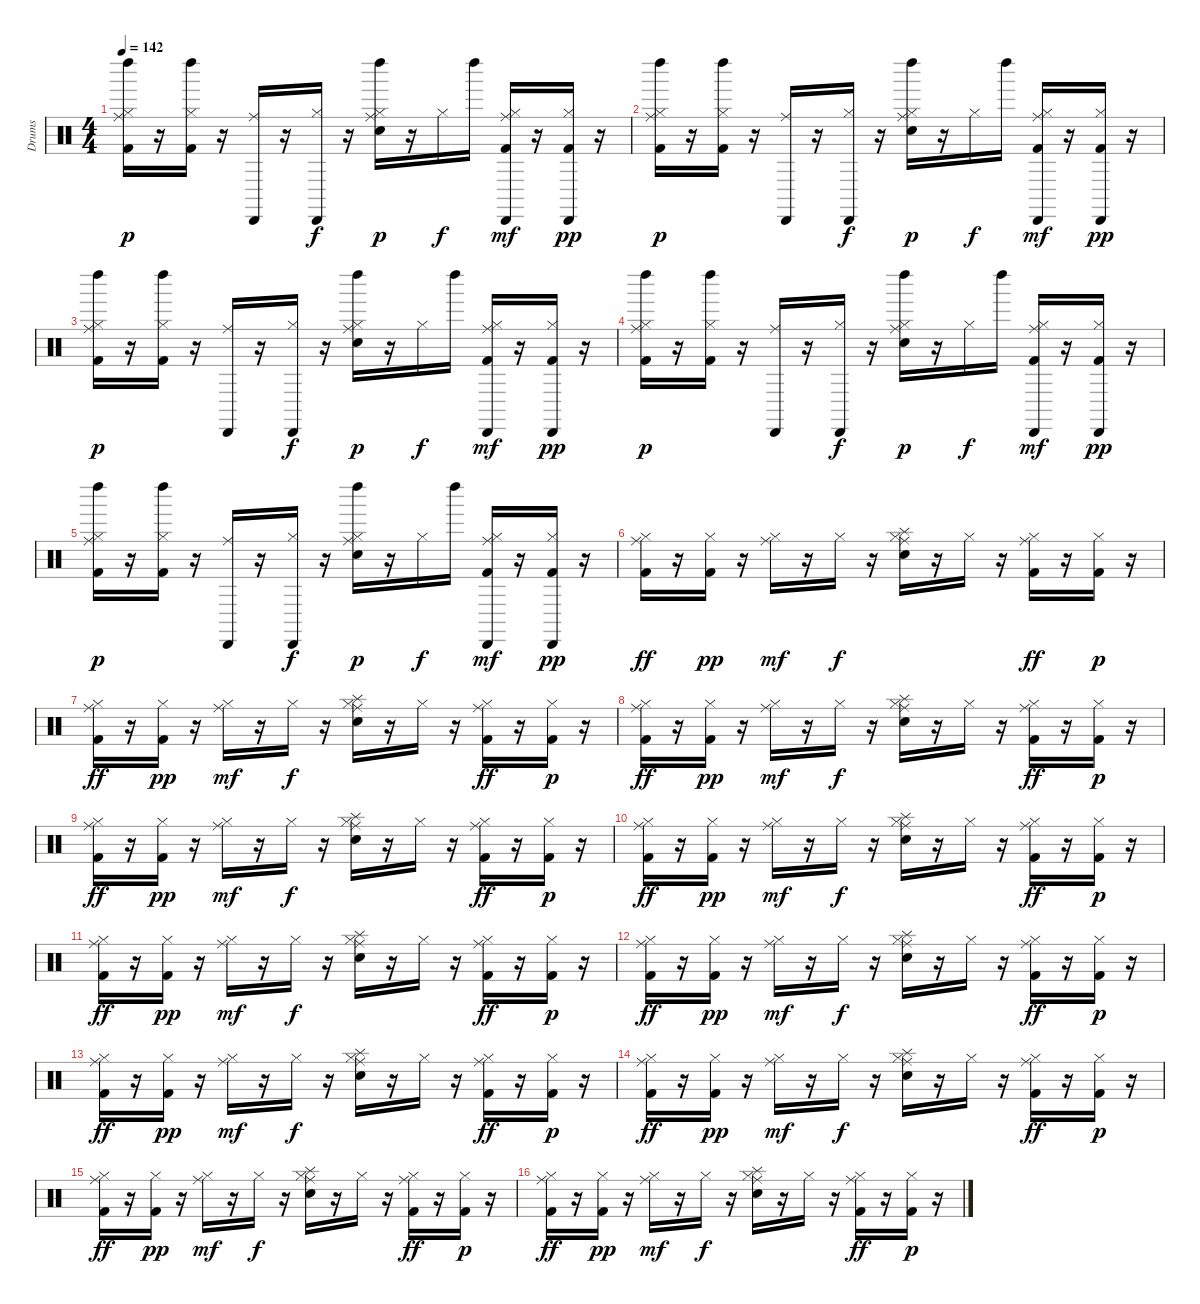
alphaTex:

\track ("Drums" "Drums") {instrument percussion}
\staff {score}
\articulation defaults
\ts (4 4)
\tempo 142
\clef neutral
\ks c
("Ride (middle)" "Hi-Hat (closed)" "Left Maraca (hit)" "Kick (hit) 2").16{dy p} r.16 ("Hi-Hat (closed)" "Left Maraca (hit)" "Kick (hit) 2").16 r.16 ("Ride (middle)" "Cabasa (hit)").16 r.16 ("Hi-Hat (closed)" "Cabasa (hit)").16{dy f} r.16 ("Ride (middle)" "Hi-Hat (closed)" "Left Maraca (hit)" "Snare (hit) 2").16{dy p} r.16 "Hi-Hat (closed)".16{dy f} "Left Maraca (hit)".16 ("Ride (middle)" "Hi-Hat (closed)" "Cabasa (hit)" "Kick (hit) 2").16{dy mf} r.16 ("Hi-Hat (closed)" "Cabasa (hit)" "Kick (hit) 2").16{dy pp} r.16 |
("Ride (middle)" "Hi-Hat (closed)" "Left Maraca (hit)" "Kick (hit) 2").16{dy p} r.16 ("Hi-Hat (closed)" "Left Maraca (hit)" "Kick (hit) 2").16 r.16 ("Ride (middle)" "Cabasa (hit)").16 r.16 ("Hi-Hat (closed)" "Cabasa (hit)").16{dy f} r.16 ("Ride (middle)" "Hi-Hat (closed)" "Left Maraca (hit)" "Snare (hit) 2").16{dy p} r.16 "Hi-Hat (closed)".16{dy f} "Left Maraca (hit)".16 ("Ride (middle)" "Hi-Hat (closed)" "Cabasa (hit)" "Kick (hit) 2").16{dy mf} r.16 ("Hi-Hat (closed)" "Cabasa (hit)" "Kick (hit) 2").16{dy pp} r.16 |
("Ride (middle)" "Hi-Hat (closed)" "Left Maraca (hit)" "Kick (hit) 2").16{dy p} r.16 ("Hi-Hat (closed)" "Left Maraca (hit)" "Kick (hit) 2").16 r.16 ("Ride (middle)" "Cabasa (hit)").16 r.16 ("Hi-Hat (closed)" "Cabasa (hit)").16{dy f} r.16 ("Ride (middle)" "Hi-Hat (closed)" "Left Maraca (hit)" "Snare (hit) 2").16{dy p} r.16 "Hi-Hat (closed)".16{dy f} "Left Maraca (hit)".16 ("Ride (middle)" "Hi-Hat (closed)" "Cabasa (hit)" "Kick (hit) 2").16{dy mf} r.16 ("Hi-Hat (closed)" "Cabasa (hit)" "Kick (hit) 2").16{dy pp} r.16 |
("Ride (middle)" "Hi-Hat (closed)" "Left Maraca (hit)" "Kick (hit) 2").16{dy p} r.16 ("Hi-Hat (closed)" "Left Maraca (hit)" "Kick (hit) 2").16 r.16 ("Ride (middle)" "Cabasa (hit)").16 r.16 ("Hi-Hat (closed)" "Cabasa (hit)").16{dy f} r.16 ("Ride (middle)" "Hi-Hat (closed)" "Left Maraca (hit)" "Snare (hit) 2").16{dy p} r.16 "Hi-Hat (closed)".16{dy f} "Left Maraca (hit)".16 ("Ride (middle)" "Hi-Hat (closed)" "Cabasa (hit)" "Kick (hit) 2").16{dy mf} r.16 ("Hi-Hat (closed)" "Cabasa (hit)" "Kick (hit) 2").16{dy pp} r.16 |
("Ride (middle)" "Hi-Hat (closed)" "Left Maraca (hit)" "Kick (hit) 2").16{dy p} r.16 ("Hi-Hat (closed)" "Left Maraca (hit)" "Kick (hit) 2").16 r.16 ("Ride (middle)" "Cabasa (hit)").16 r.16 ("Hi-Hat (closed)" "Cabasa (hit)").16{dy f} r.16 ("Ride (middle)" "Hi-Hat (closed)" "Left Maraca (hit)" "Snare (hit) 2").16{dy p} r.16 "Hi-Hat (closed)".16{dy f} "Left Maraca (hit)".16 ("Ride (middle)" "Hi-Hat (closed)" "Cabasa (hit)" "Kick (hit) 2").16{dy mf} r.16 ("Hi-Hat (closed)" "Cabasa (hit)" "Kick (hit) 2").16{dy pp} r.16 |
("Ride (middle)" "Hi-Hat (closed)" "Kick (hit) 2").16{dy ff} r.16 ("Hi-Hat (closed)" "Kick (hit) 2").16{dy pp} r.16 ("Ride (middle)" "Hi-Hat (closed)").16{dy mf} r.16 "Hi-Hat (closed)".16{dy f} r.16 ("Ride (middle)" "Hi-Hat (closed)" "Splash (hit)" "Snare (hit) 2").16 r.16 "Hi-Hat (closed)".16 r.16 ("Ride (middle)" "Hi-Hat (closed)" "Kick (hit) 2").16{dy ff} r.16 ("Hi-Hat (closed)" "Kick (hit) 2").16{dy p} r.16 |
("Ride (middle)" "Hi-Hat (closed)" "Kick (hit) 2").16{dy ff} r.16 ("Hi-Hat (closed)" "Kick (hit) 2").16{dy pp} r.16 ("Ride (middle)" "Hi-Hat (closed)").16{dy mf} r.16 "Hi-Hat (closed)".16{dy f} r.16 ("Ride (middle)" "Hi-Hat (closed)" "Splash (hit)" "Snare (hit) 2").16 r.16 "Hi-Hat (closed)".16 r.16 ("Ride (middle)" "Hi-Hat (closed)" "Kick (hit) 2").16{dy ff} r.16 ("Hi-Hat (closed)" "Kick (hit) 2").16{dy p} r.16 |
("Ride (middle)" "Hi-Hat (closed)" "Kick (hit) 2").16{dy ff} r.16 ("Hi-Hat (closed)" "Kick (hit) 2").16{dy pp} r.16 ("Ride (middle)" "Hi-Hat (closed)").16{dy mf} r.16 "Hi-Hat (closed)".16{dy f} r.16 ("Ride (middle)" "Hi-Hat (closed)" "Splash (hit)" "Snare (hit) 2").16 r.16 "Hi-Hat (closed)".16 r.16 ("Ride (middle)" "Hi-Hat (closed)" "Kick (hit) 2").16{dy ff} r.16 ("Hi-Hat (closed)" "Kick (hit) 2").16{dy p} r.16 |
("Ride (middle)" "Hi-Hat (closed)" "Kick (hit) 2").16{dy ff} r.16 ("Hi-Hat (closed)" "Kick (hit) 2").16{dy pp} r.16 ("Ride (middle)" "Hi-Hat (closed)").16{dy mf} r.16 "Hi-Hat (closed)".16{dy f} r.16 ("Ride (middle)" "Hi-Hat (closed)" "Splash (hit)" "Snare (hit) 2").16 r.16 "Hi-Hat (closed)".16 r.16 ("Ride (middle)" "Hi-Hat (closed)" "Kick (hit) 2").16{dy ff} r.16 ("Hi-Hat (closed)" "Kick (hit) 2").16{dy p} r.16 |
("Ride (middle)" "Hi-Hat (closed)" "Kick (hit) 2").16{dy ff} r.16 ("Hi-Hat (closed)" "Kick (hit) 2").16{dy pp} r.16 ("Ride (middle)" "Hi-Hat (closed)").16{dy mf} r.16 "Hi-Hat (closed)".16{dy f} r.16 ("Ride (middle)" "Hi-Hat (closed)" "Splash (hit)" "Snare (hit) 2").16 r.16 "Hi-Hat (closed)".16 r.16 ("Ride (middle)" "Hi-Hat (closed)" "Kick (hit) 2").16{dy ff} r.16 ("Hi-Hat (closed)" "Kick (hit) 2").16{dy p} r.16 |
("Ride (middle)" "Hi-Hat (closed)" "Kick (hit) 2").16{dy ff} r.16 ("Hi-Hat (closed)" "Kick (hit) 2").16{dy pp} r.16 ("Ride (middle)" "Hi-Hat (closed)").16{dy mf} r.16 "Hi-Hat (closed)".16{dy f} r.16 ("Ride (middle)" "Hi-Hat (closed)" "Splash (hit)" "Snare (hit) 2").16 r.16 "Hi-Hat (closed)".16 r.16 ("Ride (middle)" "Hi-Hat (closed)" "Kick (hit) 2").16{dy ff} r.16 ("Hi-Hat (closed)" "Kick (hit) 2").16{dy p} r.16 |
("Ride (middle)" "Hi-Hat (closed)" "Kick (hit) 2").16{dy ff} r.16 ("Hi-Hat (closed)" "Kick (hit) 2").16{dy pp} r.16 ("Ride (middle)" "Hi-Hat (closed)").16{dy mf} r.16 "Hi-Hat (closed)".16{dy f} r.16 ("Ride (middle)" "Hi-Hat (closed)" "Splash (hit)" "Snare (hit) 2").16 r.16 "Hi-Hat (closed)".16 r.16 ("Ride (middle)" "Hi-Hat (closed)" "Kick (hit) 2").16{dy ff} r.16 ("Hi-Hat (closed)" "Kick (hit) 2").16{dy p} r.16 |
("Ride (middle)" "Hi-Hat (closed)" "Kick (hit) 2").16{dy ff} r.16 ("Hi-Hat (closed)" "Kick (hit) 2").16{dy pp} r.16 ("Ride (middle)" "Hi-Hat (closed)").16{dy mf} r.16 "Hi-Hat (closed)".16{dy f} r.16 ("Ride (middle)" "Hi-Hat (closed)" "Splash (hit)" "Snare (hit) 2").16 r.16 "Hi-Hat (closed)".16 r.16 ("Ride (middle)" "Hi-Hat (closed)" "Kick (hit) 2").16{dy ff} r.16 ("Hi-Hat (closed)" "Kick (hit) 2").16{dy p} r.16 |
("Ride (middle)" "Hi-Hat (closed)" "Kick (hit) 2").16{dy ff} r.16 ("Hi-Hat (closed)" "Kick (hit) 2").16{dy pp} r.16 ("Ride (middle)" "Hi-Hat (closed)").16{dy mf} r.16 "Hi-Hat (closed)".16{dy f} r.16 ("Ride (middle)" "Hi-Hat (closed)" "Splash (hit)" "Snare (hit) 2").16 r.16 "Hi-Hat (closed)".16 r.16 ("Ride (middle)" "Hi-Hat (closed)" "Kick (hit) 2").16{dy ff} r.16 ("Hi-Hat (closed)" "Kick (hit) 2").16{dy p} r.16 |
("Ride (middle)" "Hi-Hat (closed)" "Kick (hit) 2").16{dy ff} r.16 ("Hi-Hat (closed)" "Kick (hit) 2").16{dy pp} r.16 ("Ride (middle)" "Hi-Hat (closed)").16{dy mf} r.16 "Hi-Hat (closed)".16{dy f} r.16 ("Ride (middle)" "Hi-Hat (closed)" "Splash (hit)" "Snare (hit) 2").16 r.16 "Hi-Hat (closed)".16 r.16 ("Ride (middle)" "Hi-Hat (closed)" "Kick (hit) 2").16{dy ff} r.16 ("Hi-Hat (closed)" "Kick (hit) 2").16{dy p} r.16 |
("Ride (middle)" "Hi-Hat (closed)" "Kick (hit) 2").16{dy ff} r.16 ("Hi-Hat (closed)" "Kick (hit) 2").16{dy pp} r.16 ("Ride (middle)" "Hi-Hat (closed)").16{dy mf} r.16 "Hi-Hat (closed)".16{dy f} r.16 ("Ride (middle)" "Hi-Hat (closed)" "Splash (hit)" "Snare (hit) 2").16 r.16 "Hi-Hat (closed)".16 r.16 ("Ride (middle)" "Hi-Hat (closed)" "Kick (hit) 2").16{dy ff} r.16 ("Hi-Hat (closed)" "Kick (hit) 2").16{dy p} r.16
